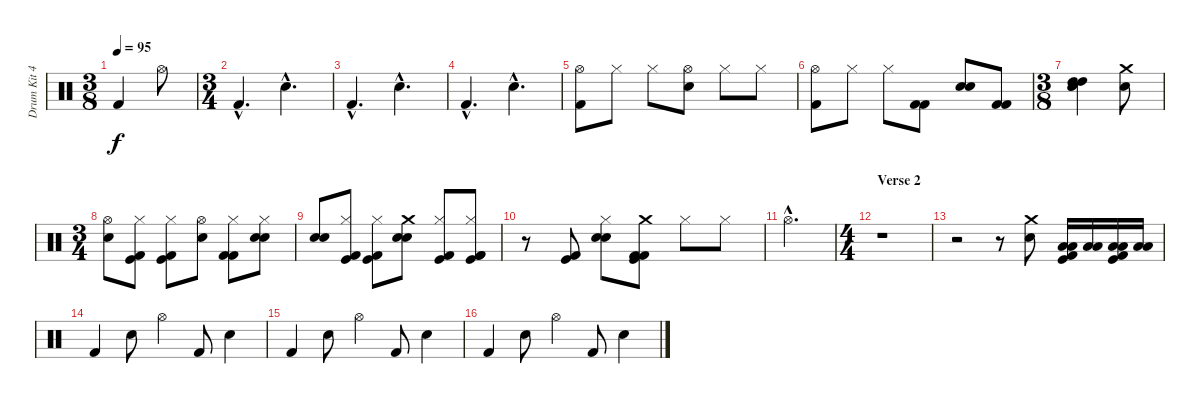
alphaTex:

\track ("Drum Kit 42" "Drum Kit 4") {instrument percussion}
\staff {score}
\articulation defaults
\ts (3 8)
\tempo 95
\clef neutral
\ks c "Kick (hit) 2".4{dy f} "Hi-Hat (open)".8
|
\ts (3 4)
"Kick (hit) 2"{hac}.4{d} "Snare (hit) 2"{hac}.4{d} |
"Kick (hit) 2"{hac}.4{d} "Snare (hit) 2"{hac}.4{d} |
"Kick (hit) 2"{hac}.4{d} "Snare (hit) 2"{hac}.4{d} |
("Hi-Hat (open)" "Kick (hit) 2").8 "Hi-Hat (closed)".8 "Hi-Hat (closed)".8 ("Hi-Hat (open)" "Snare (hit) 2").8 "Hi-Hat (closed)".8 "Hi-Hat (closed)".8 |
("Hi-Hat (open)" "Kick (hit) 2").8 "Hi-Hat (closed)".8 "Hi-Hat (closed)".8 ("Kick (hit) 2" "Kick (hit) 2").8 ("Snare (hit) 2" "Snare (hit) 2").8 ("Kick (hit) 2" "Kick (hit) 2").8 |
\ts (3 8)
("High Tom (hit)" "High Tom (hit)" "Snare (hit) 2" "Snare (hit) 2").4 ("Crash medium (hit)" "Snare (hit) 2").8 |
\ts (3 4)
("Hi-Hat (open)" "Snare (hit) 2").8 ("Hi-Hat (closed)" "Kick (hit)" "Kick (hit) 2").8 ("Hi-Hat (closed)" "Kick (hit)" "Kick (hit) 2").8 ("Hi-Hat (open)" "Snare (hit) 2").8 ("Hi-Hat (closed)" "Kick (hit) 2" "Kick (hit) 2").8 ("Hi-Hat (closed)" "Snare (hit) 2" "Snare (hit) 2").8 |
("Snare (hit) 2" "Snare (hit) 2").8 ("Hi-Hat (closed)" "Kick (hit)" "Kick (hit) 2").8 ("Hi-Hat (closed)" "Kick (hit)" "Kick (hit) 2").8 ("Crash medium (hit)" "Snare (hit) 2" "Snare (hit) 2").8 ("Hi-Hat (closed)" "Kick (hit)" "Kick (hit) 2").8 ("Hi-Hat (closed)" "Kick (hit) 2" "Kick (hit) 2" "Kick (hit)").8 |
r.8 ("Kick (hit) 2" "Kick (hit)").8 ("Hi-Hat (closed)" "Snare (hit) 2" "Snare (hit) 2").8 ("Crash medium (hit)" "Kick (hit) 2" "Kick (hit) 2" "Kick (hit)").8 "Hi-Hat (closed)".8 "Hi-Hat (closed)".8 |
"Hi-Hat (open)"{hac}.2{d} |
\ts (4 4)
\section ("" "Verse 2")
r.1 |
r.2 r.8 ("Crash medium (hit)" "Snare (hit) 2").8 ("Kick (hit)" "Low Tom (hit)" "Low Tom (hit)" "Kick (hit) 2").16 ("Low Tom (hit)" "Low Tom (hit)").16 ("Kick (hit)" "Low Floor Tom (hit)" "Low Floor Tom (hit)" "Kick (hit) 2").16 ("Low Floor Tom (hit)" "Low Floor Tom (hit)").16 |
"Kick (hit) 2".4 "Snare (hit) 2".8 "Hi-Hat (open)".4 "Kick (hit) 2".8 "Snare (hit) 2".4 |
"Kick (hit) 2".4 "Snare (hit) 2".8 "Hi-Hat (open)".4 "Kick (hit) 2".8 "Snare (hit) 2".4 |
"Kick (hit) 2".4 "Snare (hit) 2".8 "Hi-Hat (open)".4 "Kick (hit) 2".8 "Snare (hit) 2".4
